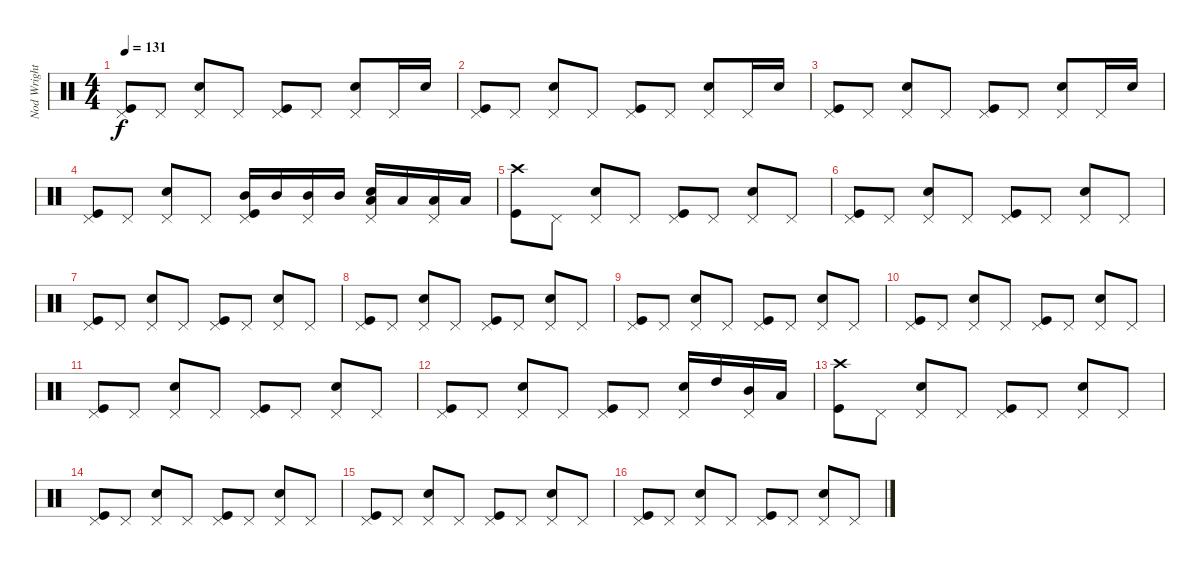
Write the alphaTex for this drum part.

\track ("Nod Wright" "Nod Wright") {instrument percussion}
\staff {score}
\articulation defaults
\ts (4 4)
\tempo 131
\clef neutral
\ks c
("Pedal Hi-Hat (hit)" "Kick (hit)").8{dy f} "Pedal Hi-Hat (hit)".8 ("Pedal Hi-Hat (hit)" "Snare (hit) 2").8 "Pedal Hi-Hat (hit)".8 ("Pedal Hi-Hat (hit)" "Kick (hit)").8 "Pedal Hi-Hat (hit)".8 ("Pedal Hi-Hat (hit)" "Snare (hit) 2").8 "Pedal Hi-Hat (hit)".16 "Snare (hit) 2".16 |
("Pedal Hi-Hat (hit)" "Kick (hit)").8 "Pedal Hi-Hat (hit)".8 ("Pedal Hi-Hat (hit)" "Snare (hit) 2").8 "Pedal Hi-Hat (hit)".8 ("Pedal Hi-Hat (hit)" "Kick (hit)").8 "Pedal Hi-Hat (hit)".8 ("Pedal Hi-Hat (hit)" "Snare (hit) 2").8 "Pedal Hi-Hat (hit)".16 "Snare (hit) 2".16 |
("Pedal Hi-Hat (hit)" "Kick (hit)").8 "Pedal Hi-Hat (hit)".8 ("Pedal Hi-Hat (hit)" "Snare (hit) 2").8 "Pedal Hi-Hat (hit)".8 ("Pedal Hi-Hat (hit)" "Kick (hit)").8 "Pedal Hi-Hat (hit)".8 ("Pedal Hi-Hat (hit)" "Snare (hit) 2").8 "Pedal Hi-Hat (hit)".16 "Snare (hit) 2".16 |
("Pedal Hi-Hat (hit)" "Kick (hit)").8 "Pedal Hi-Hat (hit)".8 ("Pedal Hi-Hat (hit)" "Snare (hit) 2").8 "Pedal Hi-Hat (hit)".8 ("Pedal Hi-Hat (hit)" "Mid Tom (hit)" "Kick (hit)").16 "Mid Tom (hit)".16 ("Pedal Hi-Hat (hit)" "Mid Tom (hit)").16 "Mid Tom (hit)".16 ("Pedal Hi-Hat (hit)" "Low Tom (hit)" "Snare (hit) 2").16 "Low Tom (hit)".16 ("Pedal Hi-Hat (hit)" "Low Tom (hit)").16 "Low Tom (hit)".16 |
("Crash high (hit)" "Kick (hit)").8 "Pedal Hi-Hat (hit)".8 ("Pedal Hi-Hat (hit)" "Snare (hit) 2").8 "Pedal Hi-Hat (hit)".8 ("Pedal Hi-Hat (hit)" "Kick (hit)").8 "Pedal Hi-Hat (hit)".8 ("Pedal Hi-Hat (hit)" "Snare (hit) 2").8 "Pedal Hi-Hat (hit)".8 |
("Pedal Hi-Hat (hit)" "Kick (hit)").8 "Pedal Hi-Hat (hit)".8 ("Pedal Hi-Hat (hit)" "Snare (hit) 2").8 "Pedal Hi-Hat (hit)".8 ("Pedal Hi-Hat (hit)" "Kick (hit)").8 "Pedal Hi-Hat (hit)".8 ("Pedal Hi-Hat (hit)" "Snare (hit) 2").8 "Pedal Hi-Hat (hit)".8 |
("Pedal Hi-Hat (hit)" "Kick (hit)").8 "Pedal Hi-Hat (hit)".8 ("Pedal Hi-Hat (hit)" "Snare (hit) 2").8 "Pedal Hi-Hat (hit)".8 ("Pedal Hi-Hat (hit)" "Kick (hit)").8 "Pedal Hi-Hat (hit)".8 ("Pedal Hi-Hat (hit)" "Snare (hit) 2").8 "Pedal Hi-Hat (hit)".8 |
("Pedal Hi-Hat (hit)" "Kick (hit)").8 "Pedal Hi-Hat (hit)".8 ("Pedal Hi-Hat (hit)" "Snare (hit) 2").8 "Pedal Hi-Hat (hit)".8 ("Pedal Hi-Hat (hit)" "Kick (hit)").8 "Pedal Hi-Hat (hit)".8 ("Pedal Hi-Hat (hit)" "Snare (hit) 2").8 "Pedal Hi-Hat (hit)".8 |
("Pedal Hi-Hat (hit)" "Kick (hit)").8 "Pedal Hi-Hat (hit)".8 ("Pedal Hi-Hat (hit)" "Snare (hit) 2").8 "Pedal Hi-Hat (hit)".8 ("Pedal Hi-Hat (hit)" "Kick (hit)").8 "Pedal Hi-Hat (hit)".8 ("Pedal Hi-Hat (hit)" "Snare (hit) 2").8 "Pedal Hi-Hat (hit)".8 |
("Pedal Hi-Hat (hit)" "Kick (hit)").8 "Pedal Hi-Hat (hit)".8 ("Pedal Hi-Hat (hit)" "Snare (hit) 2").8 "Pedal Hi-Hat (hit)".8 ("Pedal Hi-Hat (hit)" "Kick (hit)").8 "Pedal Hi-Hat (hit)".8 ("Pedal Hi-Hat (hit)" "Snare (hit) 2").8 "Pedal Hi-Hat (hit)".8 |
("Pedal Hi-Hat (hit)" "Kick (hit)").8 "Pedal Hi-Hat (hit)".8 ("Pedal Hi-Hat (hit)" "Snare (hit) 2").8 "Pedal Hi-Hat (hit)".8 ("Pedal Hi-Hat (hit)" "Kick (hit)").8 "Pedal Hi-Hat (hit)".8 ("Pedal Hi-Hat (hit)" "Snare (hit) 2").8 "Pedal Hi-Hat (hit)".8 |
("Pedal Hi-Hat (hit)" "Kick (hit)").8 "Pedal Hi-Hat (hit)".8 ("Pedal Hi-Hat (hit)" "Snare (hit) 2").8 "Pedal Hi-Hat (hit)".8 ("Pedal Hi-Hat (hit)" "Kick (hit)").8 "Pedal Hi-Hat (hit)".8 ("Pedal Hi-Hat (hit)" "Snare (hit) 2").16 "High Tom (hit)".16 ("Pedal Hi-Hat (hit)" "Mid Tom (hit)").16 "Low Tom (hit)".16 |
("Crash high (hit)" "Kick (hit)").8 "Pedal Hi-Hat (hit)".8 ("Pedal Hi-Hat (hit)" "Snare (hit) 2").8 "Pedal Hi-Hat (hit)".8 ("Pedal Hi-Hat (hit)" "Kick (hit)").8 "Pedal Hi-Hat (hit)".8 ("Pedal Hi-Hat (hit)" "Snare (hit) 2").8 "Pedal Hi-Hat (hit)".8 |
("Pedal Hi-Hat (hit)" "Kick (hit)").8 "Pedal Hi-Hat (hit)".8 ("Pedal Hi-Hat (hit)" "Snare (hit) 2").8 "Pedal Hi-Hat (hit)".8 ("Pedal Hi-Hat (hit)" "Kick (hit)").8 "Pedal Hi-Hat (hit)".8 ("Pedal Hi-Hat (hit)" "Snare (hit) 2").8 "Pedal Hi-Hat (hit)".8 |
("Pedal Hi-Hat (hit)" "Kick (hit)").8 "Pedal Hi-Hat (hit)".8 ("Pedal Hi-Hat (hit)" "Snare (hit) 2").8 "Pedal Hi-Hat (hit)".8 ("Pedal Hi-Hat (hit)" "Kick (hit)").8 "Pedal Hi-Hat (hit)".8 ("Pedal Hi-Hat (hit)" "Snare (hit) 2").8 "Pedal Hi-Hat (hit)".8 |
("Pedal Hi-Hat (hit)" "Kick (hit)").8 "Pedal Hi-Hat (hit)".8 ("Pedal Hi-Hat (hit)" "Snare (hit) 2").8 "Pedal Hi-Hat (hit)".8 ("Pedal Hi-Hat (hit)" "Kick (hit)").8 "Pedal Hi-Hat (hit)".8 ("Pedal Hi-Hat (hit)" "Snare (hit) 2").8 "Pedal Hi-Hat (hit)".8
